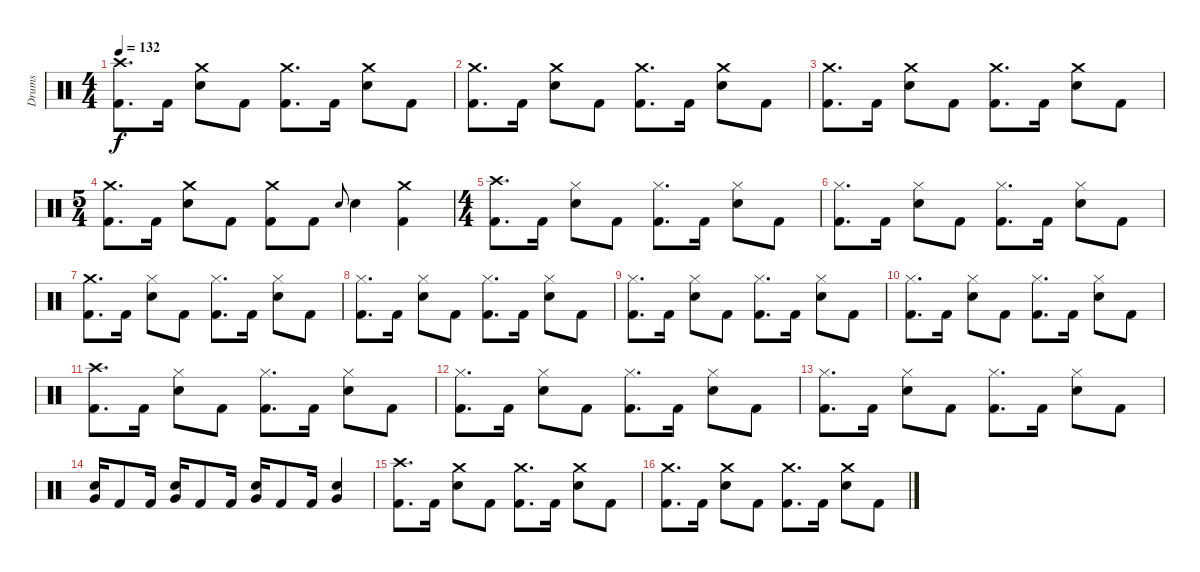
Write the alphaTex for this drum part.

\track ("Drums" "Drums") {instrument percussion}
\staff {score}
\articulation defaults
\ts (4 4)
\tempo 132
\clef neutral
\ks c
("Crash high (hit)" "Kick (hit) 2").8{d dy f} "Kick (hit) 2".16 ("Crash medium (hit)" "Snare (hit) 2").8 "Kick (hit) 2".8 ("Crash medium (hit)" "Kick (hit) 2").8{d} "Kick (hit) 2".16 ("Crash medium (hit)" "Snare (hit) 2").8 "Kick (hit) 2".8 |
("Crash medium (hit)" "Kick (hit) 2").8{d} "Kick (hit) 2".16 ("Crash medium (hit)" "Snare (hit) 2").8 "Kick (hit) 2".8 ("Crash medium (hit)" "Kick (hit) 2").8{d} "Kick (hit) 2".16 ("Crash medium (hit)" "Snare (hit) 2").8 "Kick (hit) 2".8 |
("Crash medium (hit)" "Kick (hit) 2").8{d} "Kick (hit) 2".16 ("Crash medium (hit)" "Snare (hit) 2").8 "Kick (hit) 2".8 ("Crash medium (hit)" "Kick (hit) 2").8{d} "Kick (hit) 2".16 ("Crash medium (hit)" "Snare (hit) 2").8 "Kick (hit) 2".8 |
\ts (5 4)
("Crash medium (hit)" "Kick (hit) 2").8{d} "Kick (hit) 2".16 ("Crash medium (hit)" "Snare (hit) 2").8 "Kick (hit) 2".8 ("Crash medium (hit)" "Kick (hit) 2").8 "Kick (hit) 2".8 "Snare (hit) 2".8{gr onbeat} "Snare (hit) 2".4 ("Crash medium (hit)" "Kick (hit) 2").4 |
\ts (4 4)
("Crash high (hit)" "Kick (hit) 2").8{d} "Kick (hit) 2".16 ("Hi-Hat (closed)" "Snare (hit) 2").8 "Kick (hit) 2".8 ("Hi-Hat (closed)" "Kick (hit) 2").8{d} "Kick (hit) 2".16 ("Hi-Hat (closed)" "Snare (hit) 2").8 "Kick (hit) 2".8 |
("Hi-Hat (closed)" "Kick (hit) 2").8{d} "Kick (hit) 2".16 ("Hi-Hat (closed)" "Snare (hit) 2").8 "Kick (hit) 2".8 ("Hi-Hat (closed)" "Kick (hit) 2").8{d} "Kick (hit) 2".16 ("Hi-Hat (closed)" "Snare (hit) 2").8 "Kick (hit) 2".8 |
("Crash medium (hit)" "Kick (hit) 2").8{d} "Kick (hit) 2".16 ("Hi-Hat (closed)" "Snare (hit) 2").8 "Kick (hit) 2".8 ("Hi-Hat (closed)" "Kick (hit) 2").8{d} "Kick (hit) 2".16 ("Hi-Hat (closed)" "Snare (hit) 2").8 "Kick (hit) 2".8 |
("Hi-Hat (closed)" "Kick (hit) 2").8{d} "Kick (hit) 2".16 ("Hi-Hat (closed)" "Snare (hit) 2").8 "Kick (hit) 2".8 ("Hi-Hat (closed)" "Kick (hit) 2").8{d} "Kick (hit) 2".16 ("Hi-Hat (closed)" "Snare (hit) 2").8 "Kick (hit) 2".8 |
("Hi-Hat (closed)" "Kick (hit) 2").8{d} "Kick (hit) 2".16 ("Hi-Hat (closed)" "Snare (hit) 2").8 "Kick (hit) 2".8 ("Hi-Hat (closed)" "Kick (hit) 2").8{d} "Kick (hit) 2".16 ("Hi-Hat (closed)" "Snare (hit) 2").8 "Kick (hit) 2".8 |
("Hi-Hat (closed)" "Kick (hit) 2").8{d} "Kick (hit) 2".16 ("Hi-Hat (closed)" "Snare (hit) 2").8 "Kick (hit) 2".8 ("Hi-Hat (closed)" "Kick (hit) 2").8{d} "Kick (hit) 2".16 ("Hi-Hat (closed)" "Snare (hit) 2").8 "Kick (hit) 2".8 |
("Crash high (hit)" "Kick (hit) 2").8{d} "Kick (hit) 2".16 ("Hi-Hat (closed)" "Snare (hit) 2").8 "Kick (hit) 2".8 ("Hi-Hat (closed)" "Kick (hit) 2").8{d} "Kick (hit) 2".16 ("Hi-Hat (closed)" "Snare (hit) 2").8 "Kick (hit) 2".8 |
("Hi-Hat (closed)" "Kick (hit) 2").8{d} "Kick (hit) 2".16 ("Hi-Hat (closed)" "Snare (hit) 2").8 "Kick (hit) 2".8 ("Hi-Hat (closed)" "Kick (hit) 2").8{d} "Kick (hit) 2".16 ("Hi-Hat (closed)" "Snare (hit) 2").8 "Kick (hit) 2".8 |
("Hi-Hat (closed)" "Kick (hit) 2").8{d} "Kick (hit) 2".16 ("Hi-Hat (closed)" "Snare (hit) 2").8 "Kick (hit) 2".8 ("Hi-Hat (closed)" "Kick (hit) 2").8{d} "Kick (hit) 2".16 ("Hi-Hat (closed)" "Snare (hit) 2").8 "Kick (hit) 2".8 |
("Very Low Tom (hit)" "Snare (hit) 2").16 "Kick (hit) 2".8 "Kick (hit) 2".16 ("Very Low Tom (hit)" "Snare (hit) 2").16 "Kick (hit) 2".8 "Kick (hit) 2".16 ("Very Low Tom (hit)" "Snare (hit) 2").16 "Kick (hit) 2".8 "Kick (hit) 2".16 ("Very Low Tom (hit)" "Snare (hit) 2").4 |
("Crash high (hit)" "Kick (hit) 2").8{d} "Kick (hit) 2".16 ("Crash medium (hit)" "Snare (hit) 2").8 "Kick (hit) 2".8 ("Crash medium (hit)" "Kick (hit) 2").8{d} "Kick (hit) 2".16 ("Crash medium (hit)" "Snare (hit) 2").8 "Kick (hit) 2".8 |
("Crash medium (hit)" "Kick (hit) 2").8{d} "Kick (hit) 2".16 ("Crash medium (hit)" "Snare (hit) 2").8 "Kick (hit) 2".8 ("Crash medium (hit)" "Kick (hit) 2").8{d} "Kick (hit) 2".16 ("Crash medium (hit)" "Snare (hit) 2").8 "Kick (hit) 2".8
